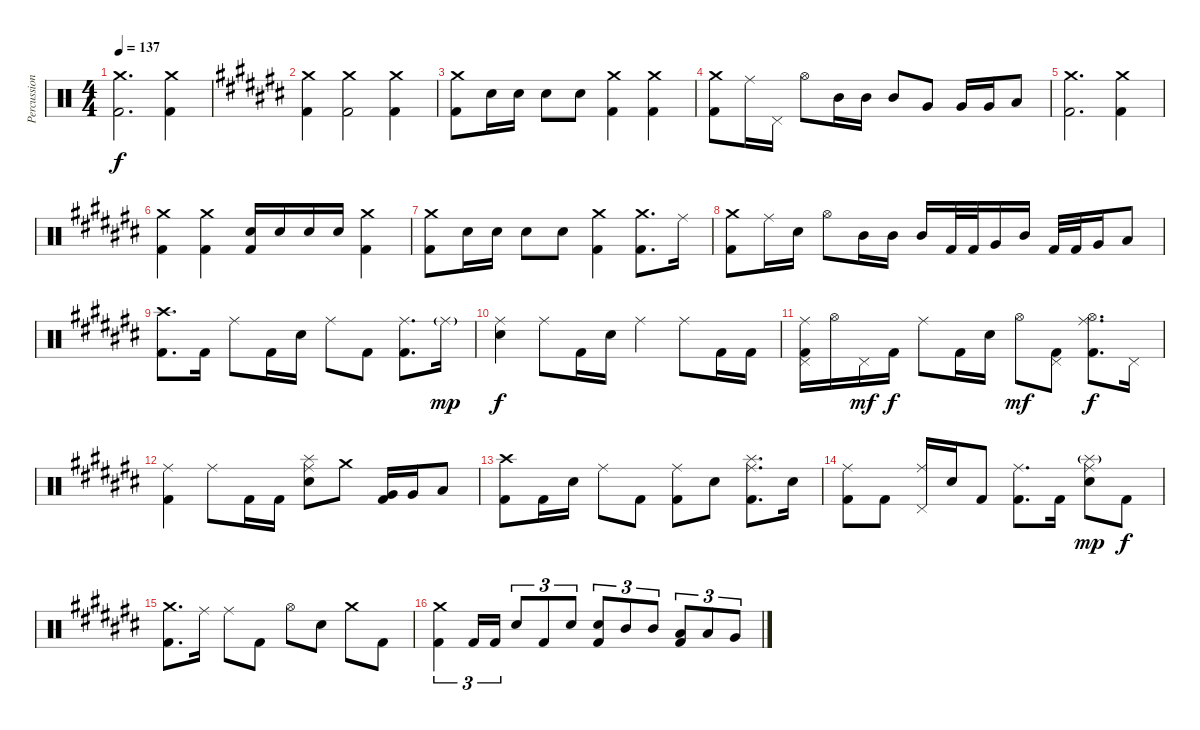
\track ("Percussion" "Percussion") {instrument percussion}
\staff {score}
\articulation defaults
\ts (4 4)
\tempo 137
\clef neutral
\ks c
("Crash medium (hit)" "Kick (hit) 2").2{d dy f} ("Crash medium (hit)" "Kick (hit) 2").4 |
\ks c#
("Crash medium (hit)" "Kick (hit) 2").4 ("Crash medium (hit)" "Kick (hit) 2").2 ("Crash medium (hit)" "Kick (hit) 2").4 |
("Crash medium (hit)" "Kick (hit) 2").8 "Electric Snare (hit)".16 "Electric Snare (hit)".16 "Electric Snare (hit)".8 "Electric Snare (hit)".8 ("Crash medium (hit)" "Kick (hit) 2").4 ("Crash medium (hit)" "Kick (hit) 2").4 |
("Crash medium (hit)" "Kick (hit) 2").8 "Ride (middle)".16 "Pedal Hi-Hat (hit)".16 "Hi-Hat (open)".8 "Mid Tom (hit)".16 "Mid Tom (hit)".16 "Mid Tom (hit)".8 "Very Low Tom (hit)".8 "Very Low Tom (hit)".16 "Very Low Tom (hit)".16 "Low Floor Tom (hit)".8 |
("Crash medium (hit)" "Kick (hit) 2").2{d} ("Crash medium (hit)" "Kick (hit) 2").4 |
("Crash medium (hit)" "Kick (hit) 2").4 ("Crash medium (hit)" "Kick (hit) 2").4 ("Electric Snare (hit)" "Kick (hit) 2").16 "Electric Snare (hit)".16 "Electric Snare (hit)".16 "Electric Snare (hit)".16 ("Crash medium (hit)" "Kick (hit) 2").4 |
("Crash medium (hit)" "Kick (hit) 2").8 "Electric Snare (hit)".16 "Electric Snare (hit)".16 "Electric Snare (hit)".8 "Electric Snare (hit)".8 ("Crash medium (hit)" "Kick (hit) 2").4 ("Crash medium (hit)" "Kick (hit) 2").8{d} "Ride (middle)".16 |
("Crash medium (hit)" "Kick (hit) 2").8 "Ride (middle)".16 "Electric Snare (hit)".16 "Hi-Hat (open)".8 "Mid Tom (hit)".16 "Mid Tom (hit)".16 "Mid Tom (hit)".16 "Kick (hit) 2".32 "Kick (hit) 2".32 "Very Low Tom (hit)".16 "Mid Tom (hit)".16 "Kick (hit) 2".32 "Kick (hit) 2".32 "Very Low Tom (hit)".16 "Low Floor Tom (hit)".8 |
("Crash high (hit)" "Kick (hit) 2").8{d} "Kick (hit) 2".16 "Ride (middle)".8 "Kick (hit) 2".16 "Electric Snare (hit)".16 "Ride (middle)".8 "Kick (hit) 2".8 ("Ride (middle)" "Kick (hit) 2").8{d} "Ride (middle)"{g}.16{dy mp} |
("Ride (middle)" "Electric Snare (hit)").4{dy f} "Ride (middle)".8 "Kick (hit) 2".16 "Electric Snare (hit)".16 "Ride (middle)".4 "Ride (middle)".8 "Kick (hit) 2".16 "Kick (hit) 2".16 |
("Ride (middle)" "Pedal Hi-Hat (hit)" "Kick (hit) 2").16 "Hi-Hat (open)".16 "Pedal Hi-Hat (hit)".16{dy mf} "Kick (hit) 2".16{dy f} "Ride (middle)".8 "Kick (hit) 2".16 "Electric Snare (hit)".16 "Hi-Hat (open)".8{dy mf} ("Pedal Hi-Hat (hit)" "Kick (hit) 2").8 ("Ride (middle)" "Hi-Hat (open)" "Kick (hit) 2").8{d dy f} "Pedal Hi-Hat (hit)".16 |
("Ride (middle)" "Kick (hit) 2").4 "Ride (middle)".8 "Kick (hit) 2".16 "Kick (hit) 2".16 ("Ride (middle)" "Splash (hit)" "Electric Snare (hit)").8 "Crash medium (hit)".8 ("Very Low Tom (hit)" "Kick (hit) 2").16 "Very Low Tom (hit)".16 "Low Floor Tom (hit)".8 |
("Crash high (hit)" "Kick (hit) 2").8 "Kick (hit) 2".16 "Electric Snare (hit)".16 "Ride (middle)".8 "Kick (hit) 2".8 ("Ride (middle)" "Kick (hit) 2").8 "Electric Snare (hit)".8 ("Ride (middle)" "Splash (hit)" "Kick (hit) 2").8{d} "Electric Snare (hit)".16 |
("Ride (middle)" "Kick (hit) 2").8 "Kick (hit) 2".8 ("Ride (middle)" "Pedal Hi-Hat (hit)").16 "Electric Snare (hit)".16 "Kick (hit) 2".8 ("Ride (middle)" "Kick (hit) 2").8{d} "Kick (hit) 2".16 ("Ride (middle)" "Splash (hit)"{g} "Electric Snare (hit)").8{dy mp} "Kick (hit) 2".8{dy f} |
("Crash medium (hit)" "Kick (hit) 2").8{d} "Ride (middle)".16 "Ride (middle)".8 "Kick (hit) 2".8 "Hi-Hat (open)".8 "Electric Snare (hit)".8 "Crash medium (hit)".8 "Kick (hit) 2".8 |
("Crash medium (hit)" "Kick (hit) 2").4{tu (3 2)} "Kick (hit) 2".16{tu (3 2)} "Kick (hit) 2".16{tu (3 2)} "Electric Snare (hit)".8{tu (3 2)} "Kick (hit) 2".8{tu (3 2)} "Electric Snare (hit)".8{tu (3 2)} ("Electric Snare (hit)" "Kick (hit) 2").8{tu (3 2)} "Mid Tom (hit)".8{tu (3 2)} "Mid Tom (hit)".8{tu (3 2)} ("Low Tom (hit)" "Kick (hit) 2").8{tu (3 2)} "Low Tom (hit)".8{tu (3 2)} "Very Low Tom (hit)".8{tu (3 2)}
